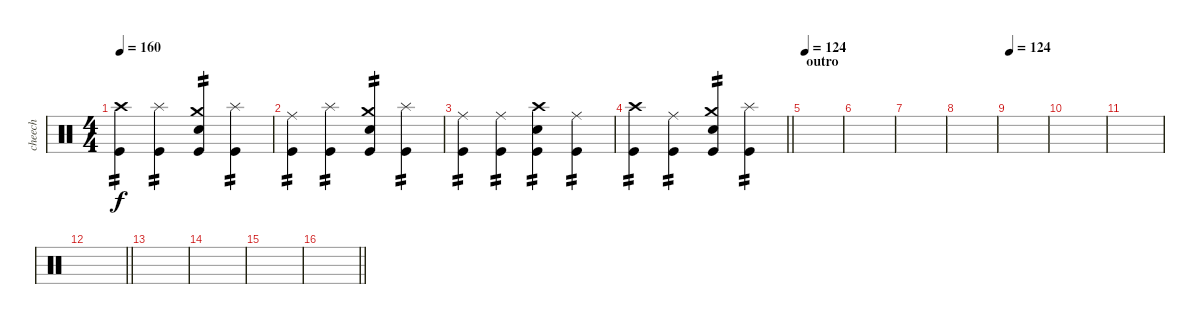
\track ("cheech" "cheech") {instrument percussion}
\staff {score}
\articulation defaults
\ts (4 4)
\tempo 160
\clef neutral
\ks c
("Crash high (hit)" "Kick (hit)").4{tp 2 dy f} ("Splash (hit)" "Kick (hit)").4{tp 2} ("Crash medium (hit)" "Electric Snare (hit)" "Kick (hit)").4{tp 2} ("Splash (hit)" "Kick (hit)").4{tp 2} |
("Ride (middle)" "Kick (hit)").4{tp 2} ("Splash (hit)" "Kick (hit)").4{tp 2} ("Crash medium (hit)" "Electric Snare (hit)" "Kick (hit)").4{tp 2} ("Splash (hit)" "Kick (hit)").4{tp 2} |
("Ride (middle)" "Kick (hit)").4{tp 2} ("Ride (middle)" "Kick (hit)").4{tp 2} ("Crash high (hit)" "Electric Snare (hit)" "Kick (hit)").4{tp 2} ("Ride (middle)" "Kick (hit)").4{tp 2} |
\barLineRight lightlight
("Crash high (hit)" "Kick (hit)").4{tp 2} ("Ride (middle)" "Kick (hit)").4{tp 2} ("Crash medium (hit)" "Electric Snare (hit)" "Kick (hit)").4{tp 2} ("Splash (hit)" "Kick (hit)").4{tp 2} |
\section ("" "outro")
\tempo 124
|
|
|
|
\tempo 124
|
|
|
\barLineRight lightlight
|
|
|
|
\barLineRight lightlight
